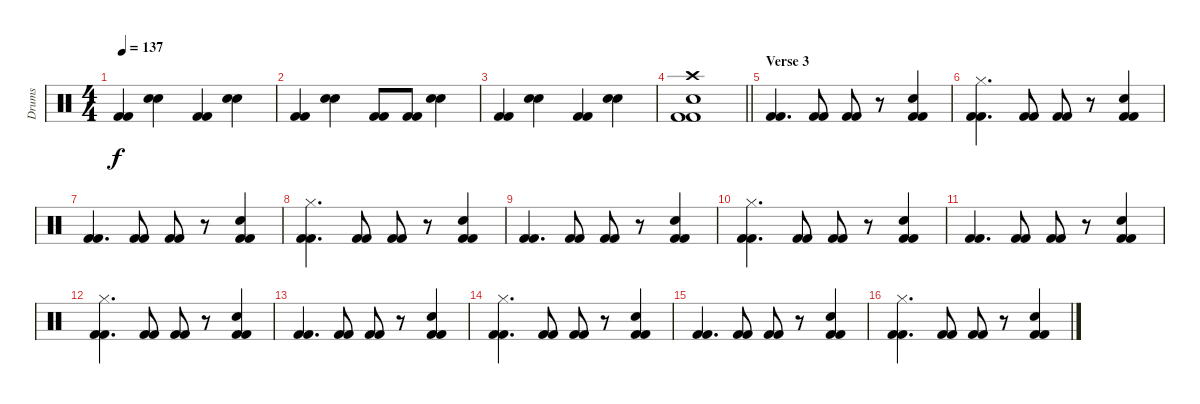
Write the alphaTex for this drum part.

\track ("Drums" "Drums") {instrument percussion}
\staff {score}
\articulation defaults
\ts (4 4)
\tempo 137
\clef neutral
\ks c
("Kick (hit) 2" "Kick (hit) 2").4{dy f} ("Electric Snare (hit)" "Electric Snare (hit)").4 ("Kick (hit) 2" "Kick (hit) 2").4 ("Electric Snare (hit)" "Electric Snare (hit)").4 |
("Kick (hit) 2" "Kick (hit) 2").4 ("Electric Snare (hit)" "Electric Snare (hit)").4 ("Kick (hit) 2" "Kick (hit) 2").8 ("Kick (hit) 2" "Kick (hit) 2").8 ("Electric Snare (hit)" "Electric Snare (hit)").4 |
("Kick (hit) 2" "Kick (hit) 2").4 ("Electric Snare (hit)" "Electric Snare (hit)").4 ("Kick (hit) 2" "Kick (hit) 2").4 ("Electric Snare (hit)" "Electric Snare (hit)").4 |
\barLineRight lightlight
("Kick (hit) 2" "Kick (hit) 2" "Electric Snare (hit)" "Crash high (hit)").1 |
\section ("" "Verse 3")
("Kick (hit) 2" "Kick (hit) 2").4{d} ("Kick (hit) 2" "Kick (hit) 2").8 ("Kick (hit) 2" "Kick (hit) 2").8 r.8 ("Kick (hit) 2" "Kick (hit) 2" "Electric Snare (hit)").4 |
("Kick (hit) 2" "Kick (hit) 2" "Hi-Hat (closed)").4{d} ("Kick (hit) 2" "Kick (hit) 2").8 ("Kick (hit) 2" "Kick (hit) 2").8 r.8 ("Kick (hit) 2" "Kick (hit) 2" "Electric Snare (hit)").4 |
("Kick (hit) 2" "Kick (hit) 2").4{d} ("Kick (hit) 2" "Kick (hit) 2").8 ("Kick (hit) 2" "Kick (hit) 2").8 r.8 ("Kick (hit) 2" "Kick (hit) 2" "Electric Snare (hit)").4 |
("Kick (hit) 2" "Kick (hit) 2" "Hi-Hat (closed)").4{d} ("Kick (hit) 2" "Kick (hit) 2").8 ("Kick (hit) 2" "Kick (hit) 2").8 r.8 ("Kick (hit) 2" "Kick (hit) 2" "Electric Snare (hit)").4 |
("Kick (hit) 2" "Kick (hit) 2").4{d} ("Kick (hit) 2" "Kick (hit) 2").8 ("Kick (hit) 2" "Kick (hit) 2").8 r.8 ("Kick (hit) 2" "Kick (hit) 2" "Electric Snare (hit)").4 |
("Kick (hit) 2" "Kick (hit) 2" "Hi-Hat (closed)").4{d} ("Kick (hit) 2" "Kick (hit) 2").8 ("Kick (hit) 2" "Kick (hit) 2").8 r.8 ("Kick (hit) 2" "Kick (hit) 2" "Electric Snare (hit)").4 |
("Kick (hit) 2" "Kick (hit) 2").4{d} ("Kick (hit) 2" "Kick (hit) 2").8 ("Kick (hit) 2" "Kick (hit) 2").8 r.8 ("Kick (hit) 2" "Kick (hit) 2" "Electric Snare (hit)").4 |
("Kick (hit) 2" "Kick (hit) 2" "Hi-Hat (closed)").4{d} ("Kick (hit) 2" "Kick (hit) 2").8 ("Kick (hit) 2" "Kick (hit) 2").8 r.8 ("Kick (hit) 2" "Kick (hit) 2" "Electric Snare (hit)").4 |
("Kick (hit) 2" "Kick (hit) 2").4{d} ("Kick (hit) 2" "Kick (hit) 2").8 ("Kick (hit) 2" "Kick (hit) 2").8 r.8 ("Kick (hit) 2" "Kick (hit) 2" "Electric Snare (hit)").4 |
("Kick (hit) 2" "Kick (hit) 2" "Hi-Hat (closed)").4{d} ("Kick (hit) 2" "Kick (hit) 2").8 ("Kick (hit) 2" "Kick (hit) 2").8 r.8 ("Kick (hit) 2" "Kick (hit) 2" "Electric Snare (hit)").4 |
("Kick (hit) 2" "Kick (hit) 2").4{d} ("Kick (hit) 2" "Kick (hit) 2").8 ("Kick (hit) 2" "Kick (hit) 2").8 r.8 ("Kick (hit) 2" "Kick (hit) 2" "Electric Snare (hit)").4 |
("Kick (hit) 2" "Kick (hit) 2" "Hi-Hat (closed)").4{d} ("Kick (hit) 2" "Kick (hit) 2").8 ("Kick (hit) 2" "Kick (hit) 2").8 r.8 ("Kick (hit) 2" "Kick (hit) 2" "Electric Snare (hit)").4
